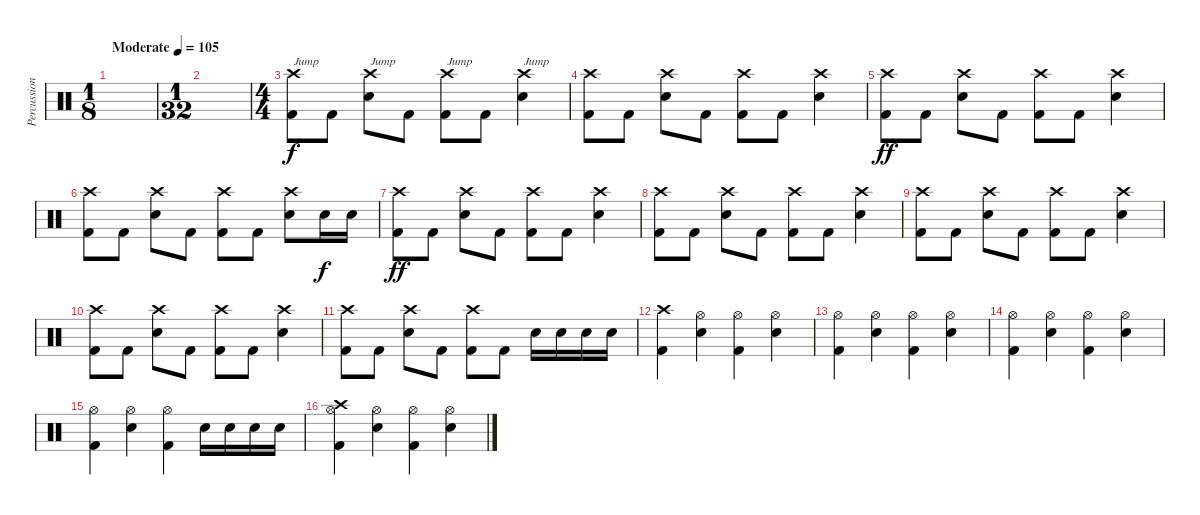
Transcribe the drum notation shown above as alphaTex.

\track ("Percussion" "Percussion") {instrument percussion}
\staff {score}
\articulation defaults
\ts (1 8)
\tempo (105 "Moderate")
\clef neutral
\ks c
|
\ts (1 32)
|
\ts (4 4)
("Crash high (hit)" "Kick (hit) 2").8{txt "Jump"} "Kick (hit) 2".8 ("Crash high (hit)" "Electric Snare (hit)").8{txt "Jump"} "Kick (hit) 2".8 ("Crash high (hit)" "Kick (hit) 2").8{txt "Jump"} "Kick (hit) 2".8 ("Crash high (hit)" "Electric Snare (hit)").4{txt "Jump"} |
("Crash high (hit)" "Kick (hit) 2").8 "Kick (hit) 2".8 ("Crash high (hit)" "Electric Snare (hit)").8 "Kick (hit) 2".8 ("Crash high (hit)" "Kick (hit) 2").8 "Kick (hit) 2".8 ("Crash high (hit)" "Electric Snare (hit)").4{dy f} |
("Crash high (hit)" "Kick (hit) 2").8{dy ff} "Kick (hit) 2".8 ("Crash high (hit)" "Electric Snare (hit)").8 "Kick (hit) 2".8 ("Crash high (hit)" "Kick (hit) 2").8 "Kick (hit) 2".8 ("Crash high (hit)" "Electric Snare (hit)").4 |
("Crash high (hit)" "Kick (hit) 2").8 "Kick (hit) 2".8 ("Crash high (hit)" "Electric Snare (hit)").8 "Kick (hit) 2".8 ("Crash high (hit)" "Kick (hit) 2").8 "Kick (hit) 2".8 ("Crash high (hit)" "Electric Snare (hit)").8 "Electric Snare (hit)".16{dy f} "Electric Snare (hit)".16 |
("Crash high (hit)" "Kick (hit) 2").8{dy ff} "Kick (hit) 2".8 ("Crash high (hit)" "Electric Snare (hit)").8 "Kick (hit) 2".8 ("Crash high (hit)" "Kick (hit) 2").8 "Kick (hit) 2".8 ("Crash high (hit)" "Electric Snare (hit)").4 |
("Crash high (hit)" "Kick (hit) 2").8 "Kick (hit) 2".8 ("Crash high (hit)" "Electric Snare (hit)").8 "Kick (hit) 2".8 ("Crash high (hit)" "Kick (hit) 2").8 "Kick (hit) 2".8 ("Crash high (hit)" "Electric Snare (hit)").4 |
("Crash high (hit)" "Kick (hit) 2").8 "Kick (hit) 2".8 ("Crash high (hit)" "Electric Snare (hit)").8 "Kick (hit) 2".8 ("Crash high (hit)" "Kick (hit) 2").8 "Kick (hit) 2".8 ("Crash high (hit)" "Electric Snare (hit)").4 |
("Crash high (hit)" "Kick (hit) 2").8 "Kick (hit) 2".8 ("Crash high (hit)" "Electric Snare (hit)").8 "Kick (hit) 2".8 ("Crash high (hit)" "Kick (hit) 2").8 "Kick (hit) 2".8 ("Crash high (hit)" "Electric Snare (hit)").4 |
("Crash high (hit)" "Kick (hit) 2").8 "Kick (hit) 2".8 ("Crash high (hit)" "Electric Snare (hit)").8 "Kick (hit) 2".8 ("Crash high (hit)" "Kick (hit) 2").8 "Kick (hit) 2".8 "Electric Snare (hit)".16 "Electric Snare (hit)".16 "Electric Snare (hit)".16 "Electric Snare (hit)".16 |
("Crash high (hit)" "Kick (hit) 2").4 ("Hi-Hat (open)" "Electric Snare (hit)").4 ("Hi-Hat (open)" "Kick (hit) 2").4 ("Hi-Hat (open)" "Electric Snare (hit)").4 |
("Hi-Hat (open)" "Kick (hit) 2").4 ("Hi-Hat (open)" "Electric Snare (hit)").4 ("Hi-Hat (open)" "Kick (hit) 2").4 ("Hi-Hat (open)" "Electric Snare (hit)").4 |
("Hi-Hat (open)" "Kick (hit) 2").4 ("Hi-Hat (open)" "Electric Snare (hit)").4 ("Hi-Hat (open)" "Kick (hit) 2").4 ("Hi-Hat (open)" "Electric Snare (hit)").4 |
("Hi-Hat (open)" "Kick (hit) 2").4 ("Hi-Hat (open)" "Electric Snare (hit)").4 ("Hi-Hat (open)" "Kick (hit) 2").4 "Electric Snare (hit)".16 "Electric Snare (hit)".16 "Electric Snare (hit)".16 "Electric Snare (hit)".16 |
("Crash high (hit)" "Hi-Hat (open)" "Kick (hit) 2").4 ("Hi-Hat (open)" "Electric Snare (hit)").4 ("Hi-Hat (open)" "Kick (hit) 2").4 ("Hi-Hat (open)" "Electric Snare (hit)").4
